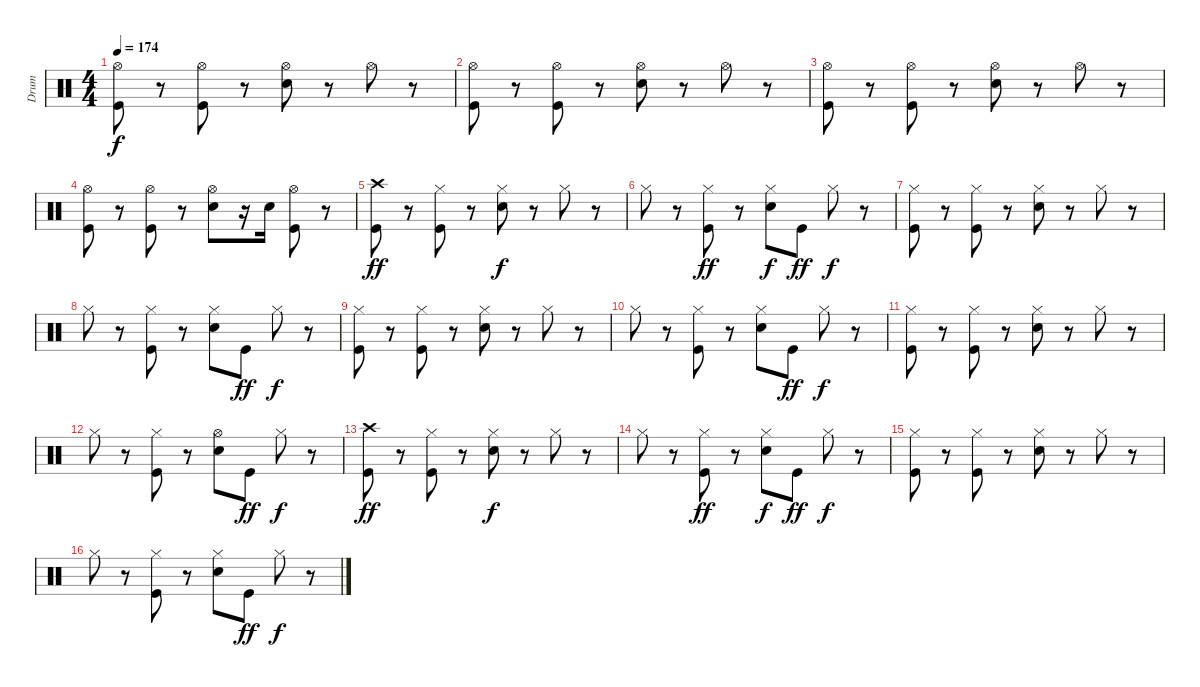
\track ("Drum" "Drum") {instrument percussion}
\staff {score}
\articulation defaults
\ts (4 4)
\tempo 174
\clef neutral
\ks c
("Hi-Hat (open)" "Kick (hit)").8{dy f} r.8 ("Hi-Hat (open)" "Kick (hit)").8 r.8 ("Hi-Hat (open)" "Electric Snare (hit)").8 r.8 "Hi-Hat (open)".8 r.8 |
("Hi-Hat (open)" "Kick (hit)").8 r.8 ("Hi-Hat (open)" "Kick (hit)").8 r.8 ("Hi-Hat (open)" "Electric Snare (hit)").8 r.8 "Hi-Hat (open)".8 r.8 |
("Hi-Hat (open)" "Kick (hit)").8 r.8 ("Hi-Hat (open)" "Kick (hit)").8 r.8 ("Hi-Hat (open)" "Electric Snare (hit)").8 r.8 "Hi-Hat (open)".8 r.8 |
("Hi-Hat (open)" "Kick (hit)").8 r.8 ("Hi-Hat (open)" "Kick (hit)").8 r.8 ("Hi-Hat (open)" "Electric Snare (hit)").8 r.16 "Electric Snare (hit)".16 ("Hi-Hat (open)" "Kick (hit)").8 r.8 |
("Crash high (hit)" "Kick (hit)").8{dy ff} r.8 ("Hi-Hat (closed)" "Kick (hit)").8 r.8 ("Hi-Hat (closed)" "Snare (hit) 2").8{dy f} r.8 "Hi-Hat (closed)".8 r.8 |
"Hi-Hat (closed)".8 r.8 ("Hi-Hat (closed)" "Kick (hit)").8{dy ff} r.8 ("Hi-Hat (closed)" "Snare (hit) 2").8{dy f} "Kick (hit)".8{dy ff} "Hi-Hat (closed)".8{dy f} r.8 |
("Hi-Hat (closed)" "Kick (hit)").8 r.8 ("Hi-Hat (closed)" "Kick (hit)").8 r.8 ("Hi-Hat (closed)" "Snare (hit) 2").8 r.8 "Hi-Hat (closed)".8 r.8 |
"Hi-Hat (closed)".8 r.8 ("Hi-Hat (closed)" "Kick (hit)").8 r.8 ("Hi-Hat (closed)" "Snare (hit) 2").8 "Kick (hit)".8{dy ff} "Hi-Hat (closed)".8{dy f} r.8 |
("Hi-Hat (closed)" "Kick (hit)").8 r.8 ("Hi-Hat (closed)" "Kick (hit)").8 r.8 ("Hi-Hat (closed)" "Snare (hit) 2").8 r.8 "Hi-Hat (closed)".8 r.8 |
"Hi-Hat (closed)".8 r.8 ("Hi-Hat (closed)" "Kick (hit)").8 r.8 ("Hi-Hat (closed)" "Snare (hit) 2").8 "Kick (hit)".8{dy ff} "Hi-Hat (closed)".8{dy f} r.8 |
("Hi-Hat (closed)" "Kick (hit)").8 r.8 ("Hi-Hat (closed)" "Kick (hit)").8 r.8 ("Hi-Hat (closed)" "Snare (hit) 2").8 r.8 "Hi-Hat (closed)".8 r.8 |
"Hi-Hat (closed)".8 r.8 ("Hi-Hat (closed)" "Kick (hit)").8 r.8 ("Hi-Hat (open)" "Snare (hit) 2").8 "Kick (hit)".8{dy ff} "Hi-Hat (closed)".8{dy f} r.8 |
("Crash high (hit)" "Kick (hit)").8{dy ff} r.8 ("Hi-Hat (closed)" "Kick (hit)").8 r.8 ("Hi-Hat (closed)" "Snare (hit) 2").8{dy f} r.8 "Hi-Hat (closed)".8 r.8 |
"Hi-Hat (closed)".8 r.8 ("Hi-Hat (closed)" "Kick (hit)").8{dy ff} r.8 ("Hi-Hat (closed)" "Snare (hit) 2").8{dy f} "Kick (hit)".8{dy ff} "Hi-Hat (closed)".8{dy f} r.8 |
("Hi-Hat (closed)" "Kick (hit)").8 r.8 ("Hi-Hat (closed)" "Kick (hit)").8 r.8 ("Hi-Hat (closed)" "Snare (hit) 2").8 r.8 "Hi-Hat (closed)".8 r.8 |
"Hi-Hat (closed)".8 r.8 ("Hi-Hat (closed)" "Kick (hit)").8 r.8 ("Hi-Hat (closed)" "Snare (hit) 2").8 "Kick (hit)".8{dy ff} "Hi-Hat (closed)".8{dy f} r.8
